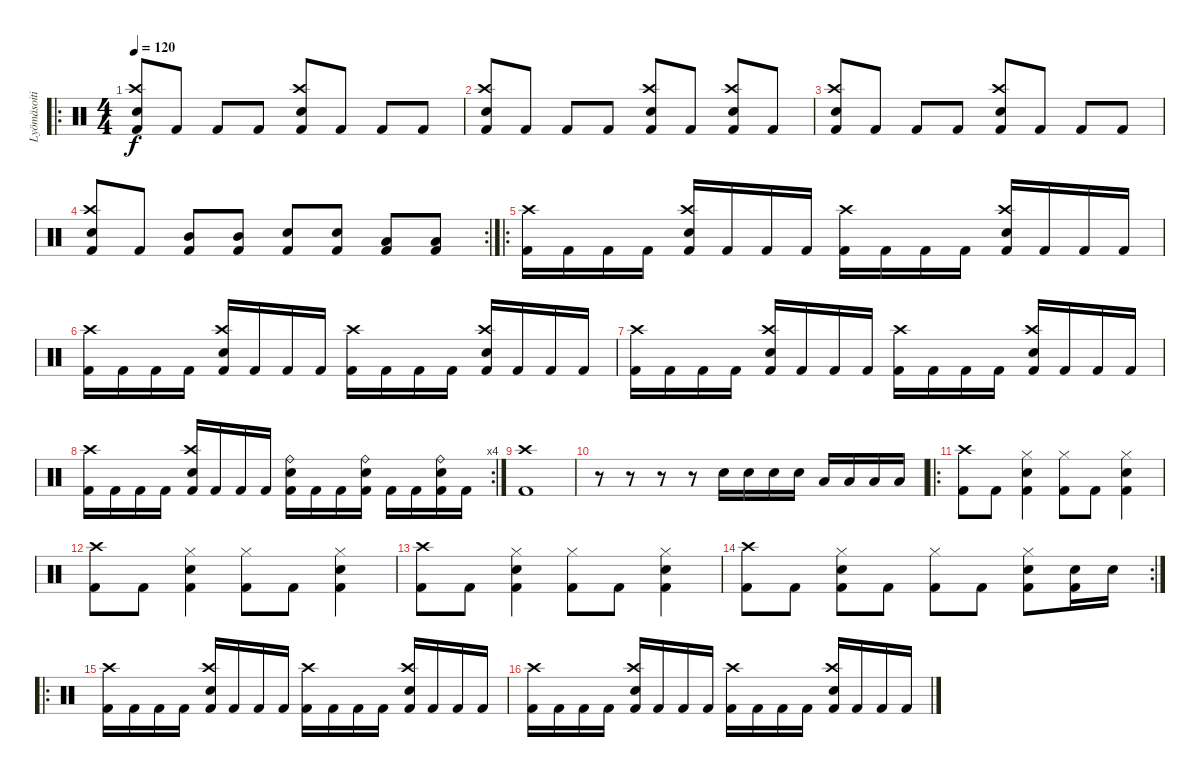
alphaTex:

\track ("Lyömäsoitin" "Lyömäsoiti") {instrument percussion}
\staff {score}
\articulation defaults
\ro
\ts (4 4)
\tempo 120
\clef neutral
\ks c
("Kick (hit) 2" "Crash high (hit)" "Electric Snare (hit)").8{dy f} "Kick (hit) 2".8 "Kick (hit) 2".8 "Kick (hit) 2".8 ("Kick (hit) 2" "Crash high (hit)" "Electric Snare (hit)").8 "Kick (hit) 2".8 "Kick (hit) 2".8 "Kick (hit) 2".8 |
("Kick (hit) 2" "Crash high (hit)" "Electric Snare (hit)").8 "Kick (hit) 2".8 "Kick (hit) 2".8 "Kick (hit) 2".8 ("Kick (hit) 2" "Crash high (hit)" "Electric Snare (hit)").8 "Kick (hit) 2".8 ("Kick (hit) 2" "Crash high (hit)" "Electric Snare (hit)").8 "Kick (hit) 2".8 |
("Kick (hit) 2" "Crash high (hit)" "Electric Snare (hit)").8 "Kick (hit) 2".8 "Kick (hit) 2".8 "Kick (hit) 2".8 ("Kick (hit) 2" "Crash high (hit)" "Electric Snare (hit)").8 "Kick (hit) 2".8 "Kick (hit) 2".8 "Kick (hit) 2".8 |
\rc 2
("Kick (hit) 2" "Crash high (hit)" "Electric Snare (hit)").8 "Kick (hit) 2".8 ("Kick (hit) 2" "Mid Tom (hit)").8 ("Kick (hit) 2" "Mid Tom (hit)").8 ("Kick (hit) 2" "Electric Snare (hit)").8 ("Kick (hit) 2" "Electric Snare (hit)").8 ("Kick (hit) 2" "Low Tom (hit)").8 ("Kick (hit) 2" "Low Tom (hit)").8 |
\ro
("Kick (hit) 2" "Crash high (hit)").16 "Kick (hit) 2".16 "Kick (hit) 2".16 "Kick (hit) 2".16 ("Kick (hit) 2" "Crash high (hit)" "Electric Snare (hit)").16 "Kick (hit) 2".16 "Kick (hit) 2".16 "Kick (hit) 2".16 ("Kick (hit) 2" "Crash high (hit)").16 "Kick (hit) 2".16 "Kick (hit) 2".16 "Kick (hit) 2".16 ("Kick (hit) 2" "Crash high (hit)" "Electric Snare (hit)").16 "Kick (hit) 2".16 "Kick (hit) 2".16 "Kick (hit) 2".16 |
("Kick (hit) 2" "Crash high (hit)").16 "Kick (hit) 2".16 "Kick (hit) 2".16 "Kick (hit) 2".16 ("Kick (hit) 2" "Crash high (hit)" "Electric Snare (hit)").16 "Kick (hit) 2".16 "Kick (hit) 2".16 "Kick (hit) 2".16 ("Kick (hit) 2" "Crash high (hit)").16 "Kick (hit) 2".16 "Kick (hit) 2".16 "Kick (hit) 2".16 ("Kick (hit) 2" "Crash high (hit)" "Electric Snare (hit)").16 "Kick (hit) 2".16 "Kick (hit) 2".16 "Kick (hit) 2".16 |
("Kick (hit) 2" "Crash high (hit)").16 "Kick (hit) 2".16 "Kick (hit) 2".16 "Kick (hit) 2".16 ("Kick (hit) 2" "Crash high (hit)" "Electric Snare (hit)").16 "Kick (hit) 2".16 "Kick (hit) 2".16 "Kick (hit) 2".16 ("Kick (hit) 2" "Crash high (hit)").16 "Kick (hit) 2".16 "Kick (hit) 2".16 "Kick (hit) 2".16 ("Kick (hit) 2" "Crash high (hit)" "Electric Snare (hit)").16 "Kick (hit) 2".16 "Kick (hit) 2".16 "Kick (hit) 2".16 |
\rc 4
("Kick (hit) 2" "Crash high (hit)").16 "Kick (hit) 2".16 "Kick (hit) 2".16 "Kick (hit) 2".16 ("Kick (hit) 2" "Crash high (hit)" "Electric Snare (hit)").16 "Kick (hit) 2".16 "Kick (hit) 2".16 "Kick (hit) 2".16 ("Kick (hit) 2" "Electric Snare (hit)" "Ride (bell)").16 "Kick (hit) 2".16 "Kick (hit) 2".16 ("Kick (hit) 2" "Electric Snare (hit)" "Ride (bell)").16 "Kick (hit) 2".16 "Kick (hit) 2".16 ("Kick (hit) 2" "Electric Snare (hit)" "Ride (bell)").16 "Kick (hit) 2".16 |
("Kick (hit) 2" "Crash high (hit)").1 |
r.8 r.8 r.8 r.8 "Electric Snare (hit)".16 "Electric Snare (hit)".16 "Electric Snare (hit)".16 "Electric Snare (hit)".16 "Low Tom (hit)".16 "Low Tom (hit)".16 "Low Tom (hit)".16 "Low Tom (hit)".16 |
\ro
("Kick (hit) 2" "Crash high (hit)").8 "Kick (hit) 2".8 ("Kick (hit) 2" "Hi-Hat (closed)" "Electric Snare (hit)").4 ("Kick (hit) 2" "Hi-Hat (closed)").8 "Kick (hit) 2".8 ("Kick (hit) 2" "Hi-Hat (closed)" "Electric Snare (hit)").4 |
("Kick (hit) 2" "Crash high (hit)").8 "Kick (hit) 2".8 ("Kick (hit) 2" "Hi-Hat (closed)" "Electric Snare (hit)").4 ("Kick (hit) 2" "Hi-Hat (closed)").8 "Kick (hit) 2".8 ("Kick (hit) 2" "Hi-Hat (closed)" "Electric Snare (hit)").4 |
("Kick (hit) 2" "Crash high (hit)").8 "Kick (hit) 2".8 ("Kick (hit) 2" "Hi-Hat (closed)" "Electric Snare (hit)").4 ("Kick (hit) 2" "Hi-Hat (closed)").8 "Kick (hit) 2".8 ("Kick (hit) 2" "Hi-Hat (closed)" "Electric Snare (hit)").4 |
\rc 2
("Kick (hit) 2" "Crash high (hit)").8 "Kick (hit) 2".8 ("Kick (hit) 2" "Hi-Hat (closed)" "Electric Snare (hit)").8 "Kick (hit) 2".8 ("Kick (hit) 2" "Hi-Hat (closed)").8 "Kick (hit) 2".8 ("Kick (hit) 2" "Hi-Hat (closed)" "Electric Snare (hit)").8 ("Kick (hit) 2" "Electric Snare (hit)").16 "Electric Snare (hit)".16 |
\ro
("Kick (hit) 2" "Crash high (hit)").16 "Kick (hit) 2".16 "Kick (hit) 2".16 "Kick (hit) 2".16 ("Kick (hit) 2" "Crash high (hit)" "Electric Snare (hit)").16 "Kick (hit) 2".16 "Kick (hit) 2".16 "Kick (hit) 2".16 ("Kick (hit) 2" "Crash high (hit)").16 "Kick (hit) 2".16 "Kick (hit) 2".16 "Kick (hit) 2".16 ("Kick (hit) 2" "Crash high (hit)" "Electric Snare (hit)").16 "Kick (hit) 2".16 "Kick (hit) 2".16 "Kick (hit) 2".16 |
("Kick (hit) 2" "Crash high (hit)").16 "Kick (hit) 2".16 "Kick (hit) 2".16 "Kick (hit) 2".16 ("Kick (hit) 2" "Crash high (hit)" "Electric Snare (hit)").16 "Kick (hit) 2".16 "Kick (hit) 2".16 "Kick (hit) 2".16 ("Kick (hit) 2" "Crash high (hit)").16 "Kick (hit) 2".16 "Kick (hit) 2".16 "Kick (hit) 2".16 ("Kick (hit) 2" "Crash high (hit)" "Electric Snare (hit)").16 "Kick (hit) 2".16 "Kick (hit) 2".16 "Kick (hit) 2".16
